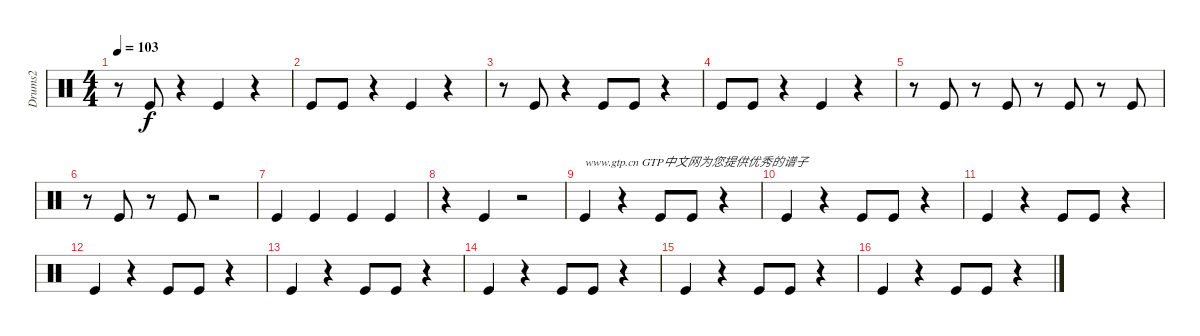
\track ("Drums2" "Drums2") {instrument percussion}
\staff {score}
\articulation defaults
\ts (4 4)
\tempo 103
\clef neutral
\ks c
r.8{dy f} "Kick (hit)".8 r.4 "Kick (hit)".4 r.4 |
"Kick (hit)".8 "Kick (hit)".8 r.4 "Kick (hit)".4 r.4 |
r.8 "Kick (hit)".8 r.4 "Kick (hit)".8 "Kick (hit)".8 r.4 |
"Kick (hit)".8 "Kick (hit)".8 r.4 "Kick (hit)".4 r.4 |
r.8 "Kick (hit)".8 r.8 "Kick (hit)".8 r.8 "Kick (hit)".8 r.8 "Kick (hit)".8 |
r.8 "Kick (hit)".8 r.8 "Kick (hit)".8 r.2 |
"Kick (hit)".4 "Kick (hit)".4 "Kick (hit)".4 "Kick (hit)".4 |
r.4 "Kick (hit)".4 r.2 |
"Kick (hit)".4{txt "www.gtp.cn GTP中文网为您提供优秀的谱子"} r.4 "Kick (hit)".8 "Kick (hit)".8 r.4 |
"Kick (hit)".4 r.4 "Kick (hit)".8 "Kick (hit)".8 r.4 |
"Kick (hit)".4 r.4 "Kick (hit)".8 "Kick (hit)".8 r.4 |
"Kick (hit)".4 r.4 "Kick (hit)".8 "Kick (hit)".8 r.4 |
"Kick (hit)".4 r.4 "Kick (hit)".8 "Kick (hit)".8 r.4 |
"Kick (hit)".4 r.4 "Kick (hit)".8 "Kick (hit)".8 r.4 |
"Kick (hit)".4 r.4 "Kick (hit)".8 "Kick (hit)".8 r.4 |
"Kick (hit)".4 r.4 "Kick (hit)".8 "Kick (hit)".8 r.4
